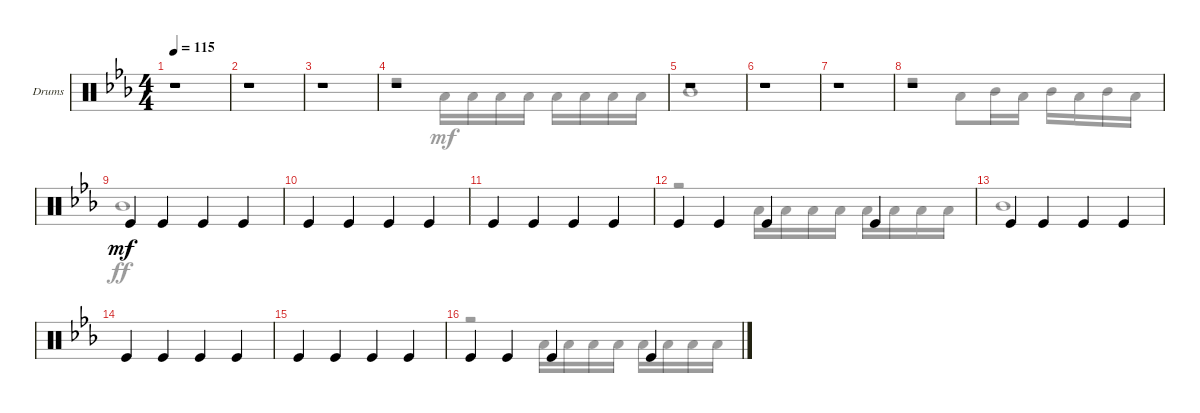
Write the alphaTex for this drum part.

\bracketExtendMode groupsimilarinstruments
\firstSystemTrackNameOrientation horizontal
\otherSystemsTrackNameOrientation horizontal
\track ("Drums" "Drums") {solo instrument percussion}
\staff {score}
\articulation defaults
\voice
\ts (4 4)
\tempo 115
\clef neutral
\ks eb
r.1{dy mf} |
r.1 |
r.1 |
r.1 |
r.1 |
r.1 |
r.1 |
r.1 |
"Kick (hit)".4 "Kick (hit)".4 "Kick (hit)".4 "Kick (hit)".4 |
"Kick (hit)".4 "Kick (hit)".4 "Kick (hit)".4 "Kick (hit)".4 |
"Kick (hit)".4 "Kick (hit)".4 "Kick (hit)".4 "Kick (hit)".4 |
"Kick (hit)".4 "Kick (hit)".4 "Kick (hit)".4 "Kick (hit)".4 |
"Kick (hit)".4 "Kick (hit)".4 "Kick (hit)".4 "Kick (hit)".4 |
"Kick (hit)".4 "Kick (hit)".4 "Kick (hit)".4 "Kick (hit)".4 |
"Kick (hit)".4 "Kick (hit)".4 "Kick (hit)".4 "Kick (hit)".4 |
"Kick (hit)".4 "Kick (hit)".4 "Kick (hit)".4 "Kick (hit)".4
\voice
\clef neutral
\ottava regular
\simile none
\ks eb
|
|
|
r.2 "Low Tom (hit)".16 "Low Tom (hit)".16 "Low Tom (hit)".16 "Low Tom (hit)".16 "Low Tom (hit)".16 "Low Tom (hit)".16 "Low Tom (hit)".16 "Low Tom (hit)".16 |
"Mid Tom (hit)".1 |
|
|
r.2 "Low Tom (hit)".8{dy mf} "Mid Tom (hit)".16 "Low Tom (hit)".16 "Mid Tom (hit)".16 "Low Tom (hit)".16 "Mid Tom (hit)".16 "Low Tom (hit)".16 |
"Mid Tom (hit)".1{dy ff} |
|
|
r.2 "Low Tom (hit)".16 "Low Tom (hit)".16 "Low Tom (hit)".16 "Low Tom (hit)".16 "Low Tom (hit)".16 "Low Tom (hit)".16 "Low Tom (hit)".16 "Low Tom (hit)".16 |
"Mid Tom (hit)".1 |
|
|
r.2 "Low Tom (hit)".16 "Low Tom (hit)".16 "Low Tom (hit)".16 "Low Tom (hit)".16 "Low Tom (hit)".16 "Low Tom (hit)".16 "Low Tom (hit)".16 "Low Tom (hit)".16
